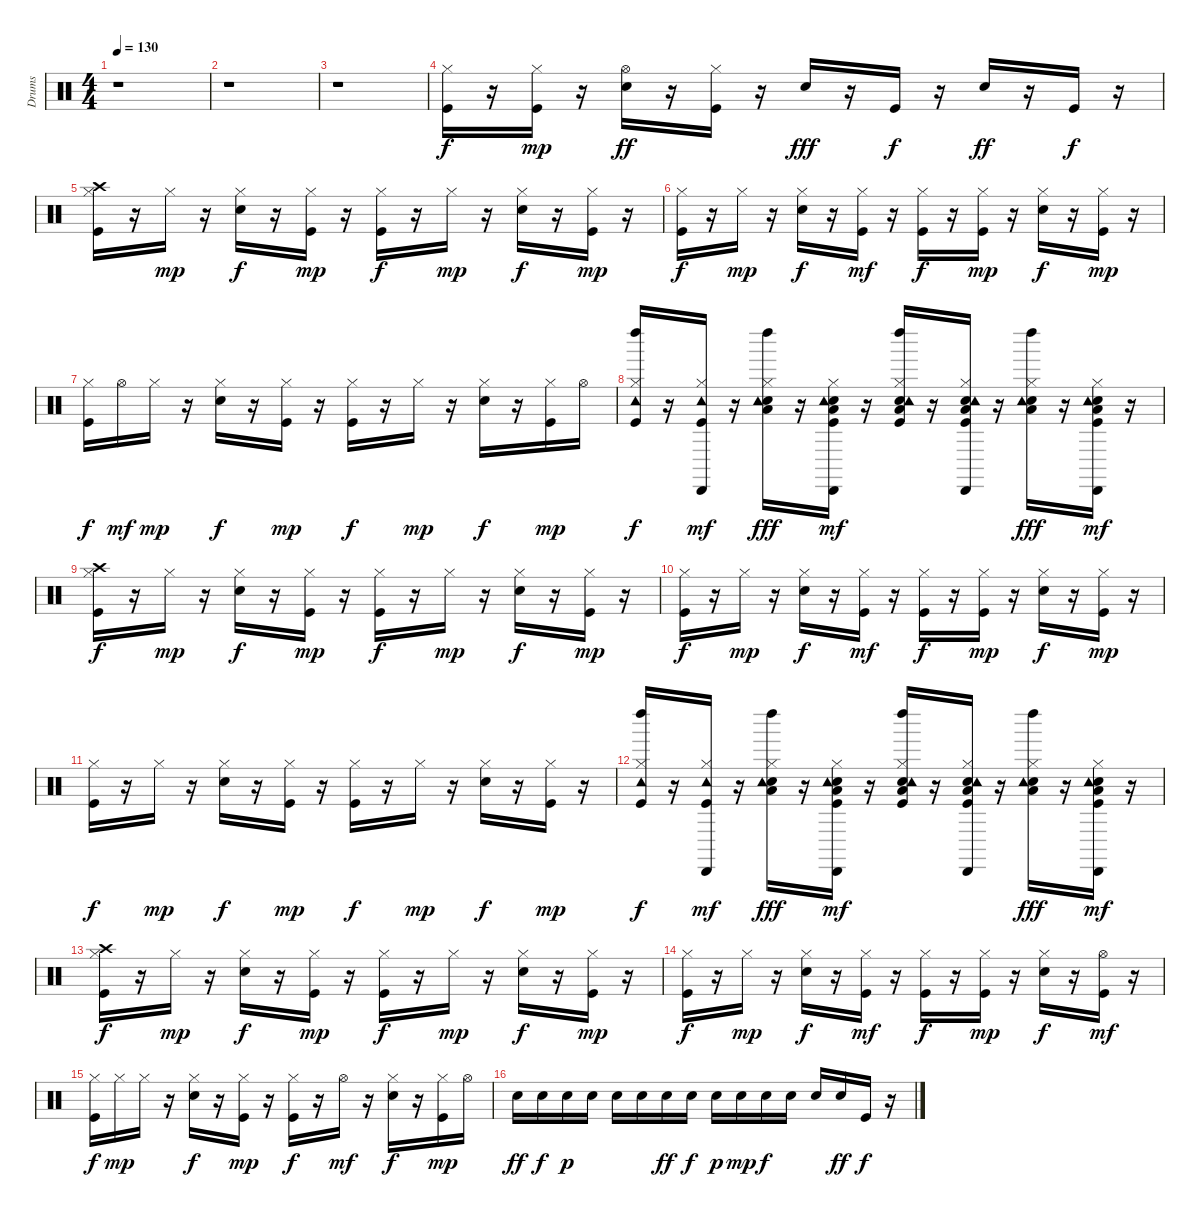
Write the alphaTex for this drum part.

\track ("Drums" "Drums") {instrument percussion}
\staff {score}
\articulation defaults
\ts (4 4)
\tempo 130
\clef neutral
\ks c
r.1{dy f} |
r.1 |
r.1 |
("Kick (hit)" "Hi-Hat (closed)").16 r.16 ("Kick (hit)" "Hi-Hat (closed)").16{dy mp} r.16 ("Snare (hit) 2" "Hi-Hat (open)").16{dy ff} r.16 ("Kick (hit)" "Hi-Hat (closed)").16 r.16 "Snare (hit) 2".16{dy fff} r.16 "Kick (hit)".16{dy f} r.16 "Snare (hit) 2".16{dy ff} r.16 "Kick (hit)".16{dy f} r.16 |
("Kick (hit)" "Hi-Hat (closed)" "Crash high (hit)").16 r.16 "Hi-Hat (closed)".16{dy mp} r.16 ("Snare (hit) 2" "Hi-Hat (closed)").16{dy f} r.16 ("Kick (hit)" "Hi-Hat (closed)").16{dy mp} r.16 ("Kick (hit)" "Hi-Hat (closed)").16{dy f} r.16 "Hi-Hat (closed)".16{dy mp} r.16 ("Snare (hit) 2" "Hi-Hat (closed)").16{dy f} r.16 ("Kick (hit)" "Hi-Hat (closed)").16{dy mp} r.16 |
("Kick (hit)" "Hi-Hat (closed)").16{dy f} r.16 "Hi-Hat (closed)".16{dy mp} r.16 ("Snare (hit) 2" "Hi-Hat (closed)").16{dy f} r.16 ("Kick (hit)" "Hi-Hat (closed)").16{dy mf} r.16 ("Kick (hit)" "Hi-Hat (closed)").16{dy f} r.16 ("Kick (hit)" "Hi-Hat (closed)").16{dy mp} r.16 ("Snare (hit) 2" "Hi-Hat (closed)").16{dy f} r.16 ("Kick (hit)" "Hi-Hat (closed)").16{dy mp} r.16 |
("Kick (hit)" "Hi-Hat (closed)").16{dy f} "Hi-Hat (open)".16{dy mf} "Hi-Hat (closed)".16{dy mp} r.16 ("Snare (hit) 2" "Hi-Hat (closed)").16{dy f} r.16 ("Kick (hit)" "Hi-Hat (closed)").16{dy mp} r.16 ("Kick (hit)" "Hi-Hat (closed)").16{dy f} r.16 "Hi-Hat (closed)".16{dy mp} r.16 ("Snare (hit) 2" "Hi-Hat (closed)").16{dy f} r.16 ("Kick (hit)" "Hi-Hat (closed)").16{dy mp} "Hi-Hat (open)".16 |
("Kick (hit)" "Hi-Hat (closed)" "Tambourine (hit)" "Left Maraca (hit)").16{dy f} r.16 ("Kick (hit)" "Hi-Hat (closed)" "Tambourine (hit)" "Cabasa (hit)").16{dy mf} r.16 ("Snare (hit) 2" "Hi-Hat (closed)" "Low Floor Tom (hit)" "Tambourine (hit)" "Left Maraca (hit)").16{dy fff} r.16 ("Kick (hit)" "Snare (hit) 2" "Hi-Hat (closed)" "Low Floor Tom (hit)" "Tambourine (hit)" "Cabasa (hit)").16{dy mf} r.16 ("Kick (hit)" "Snare (hit) 2" "Hi-Hat (closed)" "Low Floor Tom (hit)" "Tambourine (hit)" "Left Maraca (hit)").16 r.16 ("Kick (hit)" "Snare (hit) 2" "Hi-Hat (closed)" "Low Floor Tom (hit)" "Tambourine (hit)" "Cabasa (hit)").16 r.16 ("Snare (hit) 2" "Hi-Hat (closed)" "Low Floor Tom (hit)" "Tambourine (hit)" "Left Maraca (hit)").16{dy fff} r.16 ("Kick (hit)" "Snare (hit) 2" "Hi-Hat (closed)" "Low Floor Tom (hit)" "Tambourine (hit)" "Cabasa (hit)").16{dy mf} r.16 |
("Kick (hit)" "Hi-Hat (closed)" "Crash high (hit)").16{dy f} r.16 "Hi-Hat (closed)".16{dy mp} r.16 ("Snare (hit) 2" "Hi-Hat (closed)").16{dy f} r.16 ("Kick (hit)" "Hi-Hat (closed)").16{dy mp} r.16 ("Kick (hit)" "Hi-Hat (closed)").16{dy f} r.16 "Hi-Hat (closed)".16{dy mp} r.16 ("Snare (hit) 2" "Hi-Hat (closed)").16{dy f} r.16 ("Kick (hit)" "Hi-Hat (closed)").16{dy mp} r.16 |
("Kick (hit)" "Hi-Hat (closed)").16{dy f} r.16 "Hi-Hat (closed)".16{dy mp} r.16 ("Snare (hit) 2" "Hi-Hat (closed)").16{dy f} r.16 ("Kick (hit)" "Hi-Hat (closed)").16{dy mf} r.16 ("Kick (hit)" "Hi-Hat (closed)").16{dy f} r.16 ("Kick (hit)" "Hi-Hat (closed)").16{dy mp} r.16 ("Snare (hit) 2" "Hi-Hat (closed)").16{dy f} r.16 ("Kick (hit)" "Hi-Hat (closed)").16{dy mp} r.16 |
("Kick (hit)" "Hi-Hat (closed)").16{dy f} r.16 "Hi-Hat (closed)".16{dy mp} r.16 ("Snare (hit) 2" "Hi-Hat (closed)").16{dy f} r.16 ("Kick (hit)" "Hi-Hat (closed)").16{dy mp} r.16 ("Kick (hit)" "Hi-Hat (closed)").16{dy f} r.16 "Hi-Hat (closed)".16{dy mp} r.16 ("Snare (hit) 2" "Hi-Hat (closed)").16{dy f} r.16 ("Kick (hit)" "Hi-Hat (closed)").16{dy mp} r.16 |
("Kick (hit)" "Hi-Hat (closed)" "Tambourine (hit)" "Left Maraca (hit)").16{dy f} r.16 ("Kick (hit)" "Hi-Hat (closed)" "Tambourine (hit)" "Cabasa (hit)").16{dy mf} r.16 ("Snare (hit) 2" "Hi-Hat (closed)" "Low Floor Tom (hit)" "Tambourine (hit)" "Left Maraca (hit)").16{dy fff} r.16 ("Kick (hit)" "Snare (hit) 2" "Hi-Hat (closed)" "Low Floor Tom (hit)" "Tambourine (hit)" "Cabasa (hit)").16{dy mf} r.16 ("Kick (hit)" "Snare (hit) 2" "Hi-Hat (closed)" "Low Floor Tom (hit)" "Tambourine (hit)" "Left Maraca (hit)").16 r.16 ("Kick (hit)" "Snare (hit) 2" "Hi-Hat (closed)" "Low Floor Tom (hit)" "Tambourine (hit)" "Cabasa (hit)").16 r.16 ("Snare (hit) 2" "Hi-Hat (closed)" "Low Floor Tom (hit)" "Tambourine (hit)" "Left Maraca (hit)").16{dy fff} r.16 ("Kick (hit)" "Snare (hit) 2" "Hi-Hat (closed)" "Low Floor Tom (hit)" "Tambourine (hit)" "Cabasa (hit)").16{dy mf} r.16 |
("Kick (hit)" "Hi-Hat (closed)" "Crash high (hit)").16{dy f} r.16 "Hi-Hat (closed)".16{dy mp} r.16 ("Snare (hit) 2" "Hi-Hat (closed)").16{dy f} r.16 ("Kick (hit)" "Hi-Hat (closed)").16{dy mp} r.16 ("Kick (hit)" "Hi-Hat (closed)").16{dy f} r.16 "Hi-Hat (closed)".16{dy mp} r.16 ("Snare (hit) 2" "Hi-Hat (closed)").16{dy f} r.16 ("Kick (hit)" "Hi-Hat (closed)").16{dy mp} r.16 |
("Kick (hit)" "Hi-Hat (closed)").16{dy f} r.16 "Hi-Hat (closed)".16{dy mp} r.16 ("Snare (hit) 2" "Hi-Hat (closed)").16{dy f} r.16 ("Kick (hit)" "Hi-Hat (closed)").16{dy mf} r.16 ("Kick (hit)" "Hi-Hat (closed)").16{dy f} r.16 ("Kick (hit)" "Hi-Hat (closed)").16{dy mp} r.16 ("Snare (hit) 2" "Hi-Hat (closed)").16{dy f} r.16 ("Kick (hit)" "Hi-Hat (open)").16{dy mf} r.16 |
("Kick (hit)" "Hi-Hat (closed)").16{dy f} "Hi-Hat (closed)".16{dy mp} "Hi-Hat (closed)".16 r.16 ("Snare (hit) 2" "Hi-Hat (closed)").16{dy f} r.16 ("Kick (hit)" "Hi-Hat (closed)").16{dy mp} r.16 ("Kick (hit)" "Hi-Hat (closed)").16{dy f} r.16 "Hi-Hat (open)".16{dy mf} r.16 ("Snare (hit) 2" "Hi-Hat (closed)").16{dy f} r.16 ("Kick (hit)" "Hi-Hat (closed)").16{dy mp} "Hi-Hat (open)".16 |
"Snare (hit) 2".16{dy ff} "Snare (hit) 2".16{dy f} "Snare (hit) 2".16{dy p} "Snare (hit) 2".16 "Snare (hit) 2".16 "Snare (hit) 2".16 "Snare (hit) 2".16{dy ff} "Snare (hit) 2".16{dy f} "Snare (hit) 2".16{dy p} "Snare (hit) 2".16{dy mp} "Snare (hit) 2".16{dy f} "Snare (hit) 2".16 "Snare (hit) 2".16 "Snare (hit) 2".16{dy ff} "Kick (hit)".16{dy f} r.16
